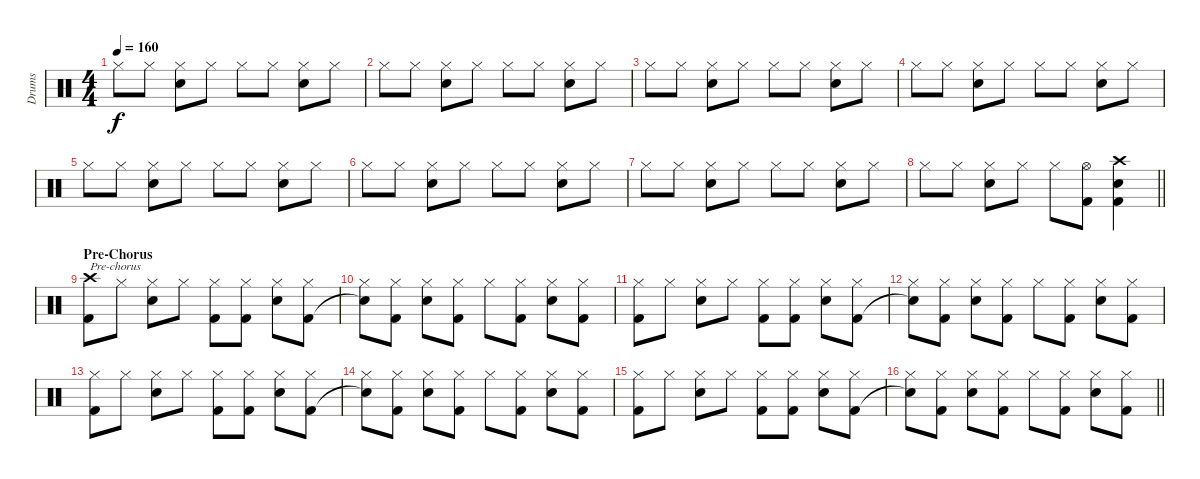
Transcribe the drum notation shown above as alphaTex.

\track ("Drums" "Drums") {instrument percussion}
\staff {score}
\articulation defaults
\ts (4 4)
\tempo 160
\clef neutral
\ks c "Hi-Hat (closed)".8{dy f} "Hi-Hat (closed)".8
("Hi-Hat (closed)" "Electric Snare (hit)").8 "Hi-Hat (closed)".8 "Hi-Hat (closed)".8 "Hi-Hat (closed)".8 ("Hi-Hat (closed)" "Electric Snare (hit)").8 "Hi-Hat (closed)".8 |
"Hi-Hat (closed)".8 "Hi-Hat (closed)".8 ("Hi-Hat (closed)" "Electric Snare (hit)").8 "Hi-Hat (closed)".8 "Hi-Hat (closed)".8 "Hi-Hat (closed)".8 ("Hi-Hat (closed)" "Electric Snare (hit)").8 "Hi-Hat (closed)".8 |
"Hi-Hat (closed)".8 "Hi-Hat (closed)".8 ("Hi-Hat (closed)" "Electric Snare (hit)").8 "Hi-Hat (closed)".8 "Hi-Hat (closed)".8 "Hi-Hat (closed)".8 ("Hi-Hat (closed)" "Electric Snare (hit)").8 "Hi-Hat (closed)".8 |
"Hi-Hat (closed)".8 "Hi-Hat (closed)".8 ("Hi-Hat (closed)" "Electric Snare (hit)").8 "Hi-Hat (closed)".8 "Hi-Hat (closed)".8 "Hi-Hat (closed)".8 ("Hi-Hat (closed)" "Electric Snare (hit)").8 "Hi-Hat (closed)".8 |
"Hi-Hat (closed)".8 "Hi-Hat (closed)".8 ("Hi-Hat (closed)" "Electric Snare (hit)").8 "Hi-Hat (closed)".8 "Hi-Hat (closed)".8 "Hi-Hat (closed)".8 ("Hi-Hat (closed)" "Electric Snare (hit)").8 "Hi-Hat (closed)".8 |
"Hi-Hat (closed)".8 "Hi-Hat (closed)".8 ("Hi-Hat (closed)" "Electric Snare (hit)").8 "Hi-Hat (closed)".8 "Hi-Hat (closed)".8 "Hi-Hat (closed)".8 ("Hi-Hat (closed)" "Electric Snare (hit)").8 "Hi-Hat (closed)".8 |
"Hi-Hat (closed)".8 "Hi-Hat (closed)".8 ("Hi-Hat (closed)" "Electric Snare (hit)").8 "Hi-Hat (closed)".8 "Hi-Hat (closed)".8 "Hi-Hat (closed)".8 ("Hi-Hat (closed)" "Electric Snare (hit)").8 "Hi-Hat (closed)".8 |
\barLineRight lightlight "Hi-Hat (closed)".8 "Hi-Hat (closed)".8
("Hi-Hat (closed)" "Electric Snare (hit)").8 "Hi-Hat (closed)".8 "Hi-Hat (closed)".8 ("Hi-Hat (open)" "Kick (hit) 2").8 ("Crash high (hit)" "Electric Snare (hit)" "Kick (hit) 2").4 |
\section ("" "Pre-Chorus")
("Crash high (hit)" "Kick (hit) 2").8{txt "Pre-chorus"} "Hi-Hat (closed)".8 ("Hi-Hat (closed)" "Electric Snare (hit)").8 "Hi-Hat (closed)".8 ("Hi-Hat (closed)" "Kick (hit) 2").8 ("Hi-Hat (closed)" "Kick (hit) 2").8 ("Hi-Hat (closed)" "Electric Snare (hit)").8 ("Hi-Hat (closed)" "Kick (hit) 2").8 |
("Hi-Hat (closed)" "Snare (hit)"{t}).8 ("Hi-Hat (closed)" "Kick (hit) 2").8 ("Hi-Hat (closed)" "Electric Snare (hit)").8 ("Hi-Hat (closed)" "Kick (hit) 2").8 "Hi-Hat (closed)".8 ("Hi-Hat (closed)" "Kick (hit) 2").8 ("Hi-Hat (closed)" "Electric Snare (hit)").8 ("Hi-Hat (closed)" "Kick (hit) 2").8 |
("Hi-Hat (closed)" "Kick (hit) 2").8 "Hi-Hat (closed)".8 ("Hi-Hat (closed)" "Electric Snare (hit)").8 "Hi-Hat (closed)".8 ("Hi-Hat (closed)" "Kick (hit) 2").8 ("Hi-Hat (closed)" "Kick (hit) 2").8 ("Hi-Hat (closed)" "Electric Snare (hit)").8 ("Hi-Hat (closed)" "Kick (hit) 2").8 |
("Hi-Hat (closed)" "Snare (hit)"{t}).8 ("Hi-Hat (closed)" "Kick (hit) 2").8 ("Hi-Hat (closed)" "Electric Snare (hit)").8 ("Hi-Hat (closed)" "Kick (hit) 2").8 "Hi-Hat (closed)".8 ("Hi-Hat (closed)" "Kick (hit) 2").8 ("Hi-Hat (closed)" "Electric Snare (hit)").8 ("Hi-Hat (closed)" "Kick (hit) 2").8 |
("Hi-Hat (closed)" "Kick (hit) 2").8 "Hi-Hat (closed)".8 ("Hi-Hat (closed)" "Electric Snare (hit)").8 "Hi-Hat (closed)".8 ("Hi-Hat (closed)" "Kick (hit) 2").8 ("Hi-Hat (closed)" "Kick (hit) 2").8 ("Hi-Hat (closed)" "Electric Snare (hit)").8 ("Hi-Hat (closed)" "Kick (hit) 2").8 |
("Hi-Hat (closed)" "Snare (hit)"{t}).8 ("Hi-Hat (closed)" "Kick (hit) 2").8 ("Hi-Hat (closed)" "Electric Snare (hit)").8 ("Hi-Hat (closed)" "Kick (hit) 2").8 "Hi-Hat (closed)".8 ("Hi-Hat (closed)" "Kick (hit) 2").8 ("Hi-Hat (closed)" "Electric Snare (hit)").8 ("Hi-Hat (closed)" "Kick (hit) 2").8 |
("Hi-Hat (closed)" "Kick (hit) 2").8 "Hi-Hat (closed)".8 ("Hi-Hat (closed)" "Electric Snare (hit)").8 "Hi-Hat (closed)".8 ("Hi-Hat (closed)" "Kick (hit) 2").8 ("Hi-Hat (closed)" "Kick (hit) 2").8 ("Hi-Hat (closed)" "Electric Snare (hit)").8 ("Hi-Hat (closed)" "Kick (hit) 2").8 |
\barLineRight lightlight
("Hi-Hat (closed)" "Snare (hit)"{t}).8 ("Hi-Hat (closed)" "Kick (hit) 2").8 ("Hi-Hat (closed)" "Electric Snare (hit)").8 ("Hi-Hat (closed)" "Kick (hit) 2").8 "Hi-Hat (closed)".8 ("Hi-Hat (closed)" "Kick (hit) 2").8 ("Hi-Hat (closed)" "Electric Snare (hit)").8 ("Hi-Hat (closed)" "Kick (hit) 2").8
